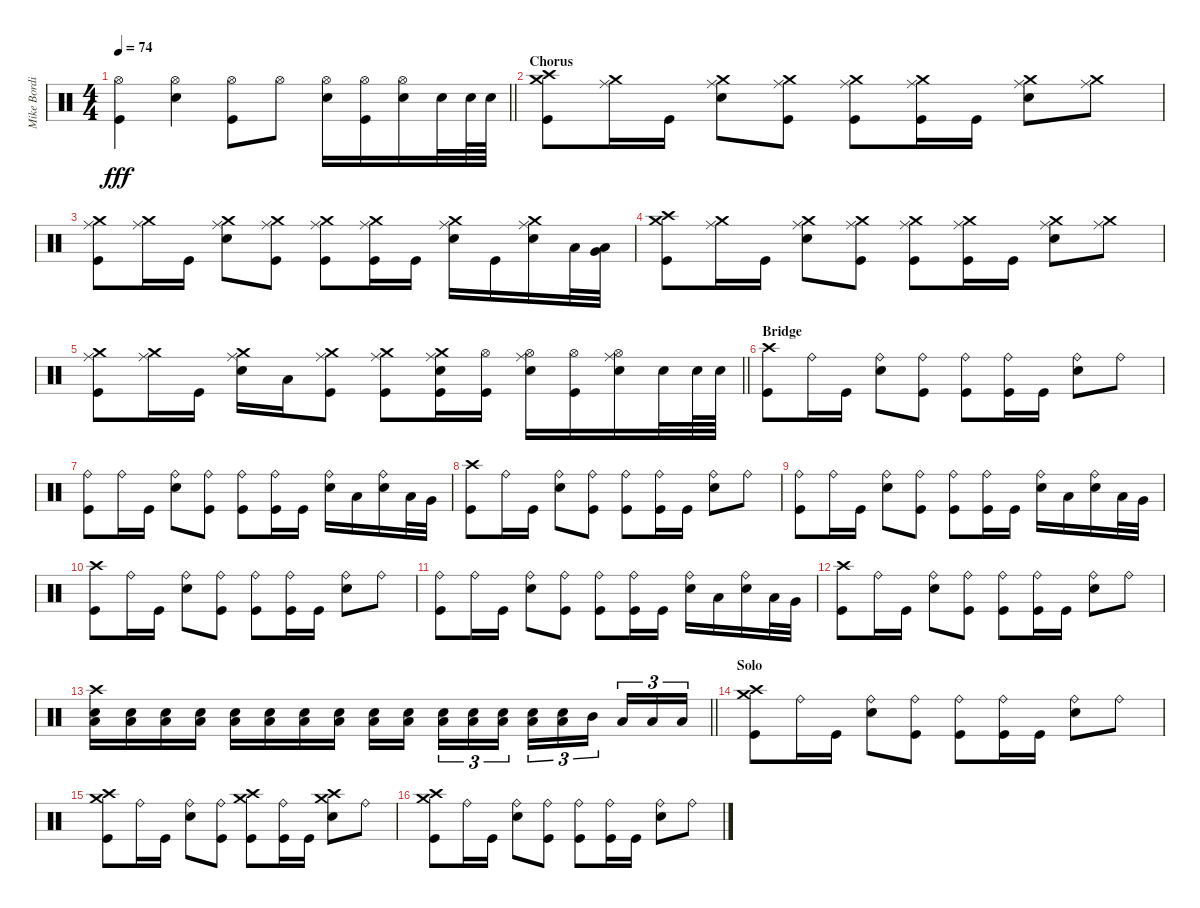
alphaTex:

\track ("Mike Bordin" "Mike Bordi") {instrument percussion}
\staff {score}
\articulation defaults
\ts (4 4)
\tempo 74
\clef neutral
\barLineRight lightlight
\ks c
("Hi-Hat (open)" "Kick (hit)").4{dy fff} ("Hi-Hat (open)" "Snare (hit) 2").4 ("Hi-Hat (open)" "Kick (hit)").8 "Hi-Hat (open)".8 ("Hi-Hat (open)" "Snare (hit) 2").16 ("Hi-Hat (open)" "Kick (hit)").16 ("Hi-Hat (open)" "Snare (hit) 2").16 "Snare (hit) 2".32 "Snare (hit) 2".64 "Snare (hit) 2".64 |
\section ("" "Chorus")
("Crash medium (hit)" "Crash high (hit)" "Kick (hit)").8 ("Crash medium (hit)" "Ride (middle)").16 "Kick (hit)".16 ("Crash medium (hit)" "Ride (middle)" "Snare (hit) 2").8 ("Crash medium (hit)" "Ride (middle)" "Kick (hit)").8 ("Crash medium (hit)" "Ride (middle)" "Kick (hit)").8 ("Crash medium (hit)" "Ride (middle)" "Kick (hit)").16 "Kick (hit)".16 ("Crash medium (hit)" "Ride (middle)" "Snare (hit) 2").8 ("Crash medium (hit)" "Ride (middle)").8 |
("Crash medium (hit)" "Ride (middle)" "Kick (hit)").8 ("Crash medium (hit)" "Ride (middle)").16 "Kick (hit)".16 ("Crash medium (hit)" "Ride (middle)" "Snare (hit) 2").8 ("Crash medium (hit)" "Ride (middle)" "Kick (hit)").8 ("Crash medium (hit)" "Ride (middle)" "Kick (hit)").8 ("Crash medium (hit)" "Ride (middle)" "Kick (hit)").16 "Kick (hit)".16 ("Crash medium (hit)" "Ride (middle)" "Snare (hit) 2").16 "Kick (hit)".16 ("Crash medium (hit)" "Ride (middle)" "Snare (hit) 2").16 "Low Tom (hit)".32 ("Low Floor Tom (hit)" "Very Low Tom (hit)").32 |
("Crash medium (hit)" "Crash high (hit)" "Kick (hit)").8 ("Crash medium (hit)" "Ride (middle)").16 "Kick (hit)".16 ("Crash medium (hit)" "Ride (middle)" "Snare (hit) 2").8 ("Crash medium (hit)" "Ride (middle)" "Kick (hit)").8 ("Crash medium (hit)" "Ride (middle)" "Kick (hit)").8 ("Crash medium (hit)" "Ride (middle)" "Kick (hit)").16 "Kick (hit)".16 ("Crash medium (hit)" "Ride (middle)" "Snare (hit) 2").8 ("Crash medium (hit)" "Ride (middle)").8 |
\barLineRight lightlight
("Crash medium (hit)" "Ride (middle)" "Kick (hit)").8 ("Crash medium (hit)" "Ride (middle)").16 "Kick (hit)".16 ("Crash medium (hit)" "Ride (middle)" "Snare (hit) 2").16 "Low Tom (hit)".16 ("Crash medium (hit)" "Ride (middle)" "Kick (hit)").8 ("Crash medium (hit)" "Ride (middle)" "Kick (hit)").8 ("Crash medium (hit)" "Ride (middle)" "Snare (hit) 2" "Kick (hit)").16 ("Hi-Hat (open)" "Kick (hit)").16 ("Hi-Hat (open)" "Ride (middle)" "Snare (hit) 2").16 ("Hi-Hat (open)" "Kick (hit)").16 ("Hi-Hat (open)" "Ride (middle)" "Snare (hit) 2").16 "Snare (hit) 2".32 "Snare (hit) 2".64 "Snare (hit) 2".64 |
\section ("" "Bridge")
("Crash high (hit)" "Kick (hit)").8 "Ride (bell)".16 "Kick (hit)".16 ("Ride (bell)" "Snare (hit) 2").8 ("Ride (bell)" "Kick (hit)").8 ("Ride (bell)" "Kick (hit)").8 ("Ride (bell)" "Kick (hit)").16 "Kick (hit)".16 ("Ride (bell)" "Snare (hit) 2").8 "Ride (bell)".8 |
("Ride (bell)" "Kick (hit)").8 "Ride (bell)".16 "Kick (hit)".16 ("Ride (bell)" "Snare (hit) 2").8 ("Ride (bell)" "Kick (hit)").8 ("Ride (bell)" "Kick (hit)").8 ("Ride (bell)" "Kick (hit)").16 "Kick (hit)".16 ("Ride (bell)" "Snare (hit) 2").16 "Low Tom (hit)".16 ("Ride (bell)" "Snare (hit) 2").16 "Low Floor Tom (hit)".32 "Very Low Tom (hit)".32 |
("Crash high (hit)" "Kick (hit)").8 "Ride (bell)".16 "Kick (hit)".16 ("Ride (bell)" "Snare (hit) 2").8 ("Ride (bell)" "Kick (hit)").8 ("Ride (bell)" "Kick (hit)").8 ("Ride (bell)" "Kick (hit)").16 "Kick (hit)".16 ("Ride (bell)" "Snare (hit) 2").8 "Ride (bell)".8 |
("Ride (bell)" "Kick (hit)").8 "Ride (bell)".16 "Kick (hit)".16 ("Ride (bell)" "Snare (hit) 2").8 ("Ride (bell)" "Kick (hit)").8 ("Ride (bell)" "Kick (hit)").8 ("Ride (bell)" "Kick (hit)").16 "Kick (hit)".16 ("Ride (bell)" "Snare (hit) 2").16 "Low Tom (hit)".16 ("Ride (bell)" "Snare (hit) 2").16 "Low Floor Tom (hit)".32 "Very Low Tom (hit)".32 |
("Crash high (hit)" "Kick (hit)").8 "Ride (bell)".16 "Kick (hit)".16 ("Ride (bell)" "Snare (hit) 2").8 ("Ride (bell)" "Kick (hit)").8 ("Ride (bell)" "Kick (hit)").8 ("Ride (bell)" "Kick (hit)").16 "Kick (hit)".16 ("Ride (bell)" "Snare (hit) 2").8 "Ride (bell)".8 |
("Ride (bell)" "Kick (hit)").8 "Ride (bell)".16 "Kick (hit)".16 ("Ride (bell)" "Snare (hit) 2").8 ("Ride (bell)" "Kick (hit)").8 ("Ride (bell)" "Kick (hit)").8 ("Ride (bell)" "Kick (hit)").16 "Kick (hit)".16 ("Ride (bell)" "Snare (hit) 2").16 "Low Tom (hit)".16 ("Ride (bell)" "Snare (hit) 2").16 "Low Floor Tom (hit)".32 "Very Low Tom (hit)".32 |
("Crash high (hit)" "Kick (hit)").8 "Ride (bell)".16 "Kick (hit)".16 ("Ride (bell)" "Snare (hit) 2").8 ("Ride (bell)" "Kick (hit)").8 ("Ride (bell)" "Kick (hit)").8 ("Ride (bell)" "Kick (hit)").16 "Kick (hit)".16 ("Ride (bell)" "Snare (hit) 2").8 "Ride (bell)".8 |
\barLineRight lightlight
("Crash high (hit)" "Low Tom (hit)" "Snare (hit) 2").16 ("Low Tom (hit)" "Snare (hit) 2").16 ("Low Tom (hit)" "Snare (hit) 2").16 ("Low Tom (hit)" "Snare (hit) 2").16 ("Low Tom (hit)" "Snare (hit) 2").16 ("Low Tom (hit)" "Snare (hit) 2").16 ("Low Tom (hit)" "Snare (hit) 2").16 ("Low Tom (hit)" "Snare (hit) 2").16 ("Low Tom (hit)" "Snare (hit) 2").16 ("Low Tom (hit)" "Snare (hit) 2").16{beam splitsecondary} ("Low Tom (hit)" "Snare (hit) 2").16{tu (3 2)} ("Low Tom (hit)" "Snare (hit) 2").16{tu (3 2)} ("Low Tom (hit)" "Snare (hit) 2").16{tu (3 2)} ("Low Tom (hit)" "Snare (hit) 2").16{tu (3 2)} ("Low Tom (hit)" "Snare (hit) 2").16{tu (3 2)} "Mid Tom (hit)".16{tu (3 2) beam splitsecondary} "Low Tom (hit)".16{tu (3 2)} "Low Tom (hit)".16{tu (3 2)} "Low Floor Tom (hit)".16{tu (3 2)} |
\section ("" "Solo")
("Crash medium (hit)" "Crash high (hit)" "Kick (hit)").8 "Ride (bell)".16 "Kick (hit)".16 ("Ride (bell)" "Snare (hit) 2").8 ("Ride (bell)" "Kick (hit)").8 ("Ride (bell)" "Kick (hit)").8 ("Ride (bell)" "Kick (hit)").16 "Kick (hit)".16 ("Ride (bell)" "Snare (hit) 2").8 "Ride (bell)".8 |
("Crash medium (hit)" "Crash high (hit)" "Kick (hit)").8 "Ride (bell)".16 "Kick (hit)".16 ("Ride (bell)" "Snare (hit) 2").8 ("Ride (bell)" "Kick (hit)").8 ("Crash medium (hit)" "Crash high (hit)" "Kick (hit)").8 ("Ride (bell)" "Kick (hit)").16 "Kick (hit)".16 ("Crash medium (hit)" "Crash high (hit)" "Snare (hit) 2").8 "Ride (bell)".8 |
("Crash medium (hit)" "Crash high (hit)" "Kick (hit)").8 "Ride (bell)".16 "Kick (hit)".16 ("Ride (bell)" "Snare (hit) 2").8 ("Ride (bell)" "Kick (hit)").8 ("Ride (bell)" "Kick (hit)").8 ("Ride (bell)" "Kick (hit)").16 "Kick (hit)".16 ("Ride (bell)" "Snare (hit) 2").8 "Ride (bell)".8
